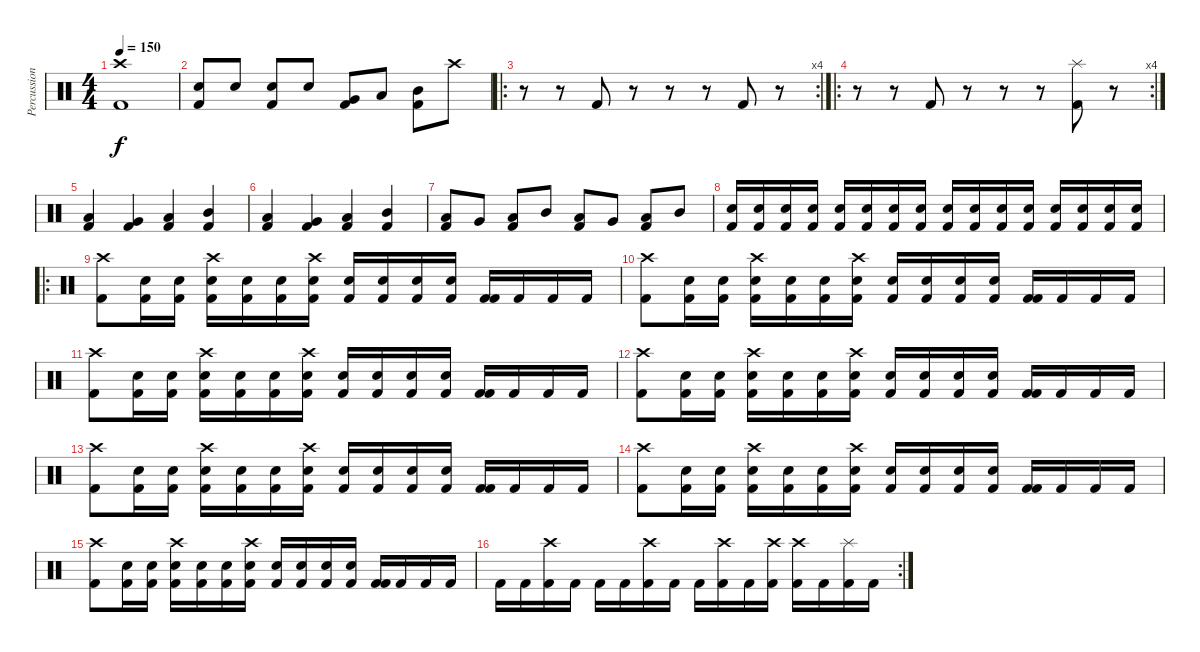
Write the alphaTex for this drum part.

\track ("Percussion" "Percussion") {instrument percussion}
\staff {score}
\articulation defaults
\ts (4 4)
\tempo 150
\clef neutral
\ks c
("Crash high (hit)" "Kick (hit) 2").1{dy f} |
("Kick (hit) 2" "Snare (hit) 2").8 "Snare (hit) 2".8 ("Kick (hit) 2" "Snare (hit) 2").8 "Snare (hit) 2".8 ("Kick (hit) 2" "Very Low Tom (hit)").8 "Low Tom (hit)".8 ("Kick (hit) 2" "Mid Tom (hit)").8 "Crash high (hit)".8 |
\ro
\rc 4
r.8 r.8 "Kick (hit) 2".8 r.8 r.8 r.8 "Kick (hit) 2".8 r.8 |
\ro
\rc 4
r.8 r.8 "Kick (hit) 2".8 r.8 r.8 r.8 ("Splash (hit)" "Kick (hit) 2").8 r.8 |
("Kick (hit) 2" "Low Floor Tom (hit)").4 ("Kick (hit) 2" "Very Low Tom (hit)").4 ("Kick (hit) 2" "Low Tom (hit)").4 ("Kick (hit) 2" "Mid Tom (hit)").4 |
("Kick (hit) 2" "Low Floor Tom (hit)").4 ("Kick (hit) 2" "Very Low Tom (hit)").4 ("Kick (hit) 2" "Low Tom (hit)").4 ("Kick (hit) 2" "Mid Tom (hit)").4 |
("Kick (hit) 2" "Low Floor Tom (hit)").8 "Very Low Tom (hit)".8 ("Kick (hit) 2" "Low Tom (hit)").8 "Mid Tom (hit)".8 ("Kick (hit) 2" "Low Floor Tom (hit)").8 "Very Low Tom (hit)".8 ("Kick (hit) 2" "Low Tom (hit)").8 "Mid Tom (hit)".8 |
("Kick (hit) 2" "Snare (hit) 2").16 ("Kick (hit) 2" "Snare (hit) 2").16 ("Kick (hit) 2" "Snare (hit) 2").16 ("Kick (hit) 2" "Snare (hit) 2").16 ("Kick (hit) 2" "Snare (hit) 2").16 ("Kick (hit) 2" "Snare (hit) 2").16 ("Kick (hit) 2" "Snare (hit) 2").16 ("Kick (hit) 2" "Snare (hit) 2").16 ("Kick (hit) 2" "Snare (hit) 2").16 ("Kick (hit) 2" "Snare (hit) 2").16 ("Kick (hit) 2" "Snare (hit) 2").16 ("Kick (hit) 2" "Snare (hit) 2").16 ("Kick (hit) 2" "Snare (hit) 2").16 ("Kick (hit) 2" "Snare (hit) 2").16 ("Kick (hit) 2" "Snare (hit) 2").16 ("Kick (hit) 2" "Snare (hit) 2").16 |
\ro
("Kick (hit) 2" "Crash high (hit)").8 ("Kick (hit) 2" "Snare (hit) 2").16 ("Snare (hit) 2" "Kick (hit) 2").16 ("Kick (hit) 2" "Snare (hit) 2" "Crash high (hit)").16 ("Snare (hit) 2" "Kick (hit) 2").16 ("Kick (hit) 2" "Snare (hit) 2").16 ("Snare (hit) 2" "Kick (hit) 2" "Crash high (hit)").16 ("Kick (hit) 2" "Snare (hit) 2").16 ("Kick (hit) 2" "Snare (hit) 2").16 ("Kick (hit) 2" "Snare (hit) 2").16 ("Kick (hit) 2" "Snare (hit) 2").16 ("Kick (hit) 2" "Kick (hit) 2").16 "Kick (hit) 2".16 "Kick (hit) 2".16 "Kick (hit) 2".16 |
("Kick (hit) 2" "Crash high (hit)").8 ("Kick (hit) 2" "Snare (hit) 2").16 ("Snare (hit) 2" "Kick (hit) 2").16 ("Kick (hit) 2" "Snare (hit) 2" "Crash high (hit)").16 ("Snare (hit) 2" "Kick (hit) 2").16 ("Kick (hit) 2" "Snare (hit) 2").16 ("Snare (hit) 2" "Kick (hit) 2" "Crash high (hit)").16 ("Kick (hit) 2" "Snare (hit) 2").16 ("Kick (hit) 2" "Snare (hit) 2").16 ("Kick (hit) 2" "Snare (hit) 2").16 ("Kick (hit) 2" "Snare (hit) 2").16 ("Kick (hit) 2" "Kick (hit) 2").16 "Kick (hit) 2".16 "Kick (hit) 2".16 "Kick (hit) 2".16 |
("Kick (hit) 2" "Crash high (hit)").8 ("Kick (hit) 2" "Snare (hit) 2").16 ("Snare (hit) 2" "Kick (hit) 2").16 ("Kick (hit) 2" "Snare (hit) 2" "Crash high (hit)").16 ("Snare (hit) 2" "Kick (hit) 2").16 ("Kick (hit) 2" "Snare (hit) 2").16 ("Snare (hit) 2" "Kick (hit) 2" "Crash high (hit)").16 ("Kick (hit) 2" "Snare (hit) 2").16 ("Kick (hit) 2" "Snare (hit) 2").16 ("Kick (hit) 2" "Snare (hit) 2").16 ("Kick (hit) 2" "Snare (hit) 2").16 ("Kick (hit) 2" "Kick (hit) 2").16 "Kick (hit) 2".16 "Kick (hit) 2".16 "Kick (hit) 2".16 |
("Kick (hit) 2" "Crash high (hit)").8 ("Kick (hit) 2" "Snare (hit) 2").16 ("Snare (hit) 2" "Kick (hit) 2").16 ("Kick (hit) 2" "Snare (hit) 2" "Crash high (hit)").16 ("Snare (hit) 2" "Kick (hit) 2").16 ("Kick (hit) 2" "Snare (hit) 2").16 ("Snare (hit) 2" "Kick (hit) 2" "Crash high (hit)").16 ("Kick (hit) 2" "Snare (hit) 2").16 ("Kick (hit) 2" "Snare (hit) 2").16 ("Kick (hit) 2" "Snare (hit) 2").16 ("Kick (hit) 2" "Snare (hit) 2").16 ("Kick (hit) 2" "Kick (hit) 2").16 "Kick (hit) 2".16 "Kick (hit) 2".16 "Kick (hit) 2".16 |
("Kick (hit) 2" "Crash high (hit)").8 ("Kick (hit) 2" "Snare (hit) 2").16 ("Snare (hit) 2" "Kick (hit) 2").16 ("Kick (hit) 2" "Snare (hit) 2" "Crash high (hit)").16 ("Snare (hit) 2" "Kick (hit) 2").16 ("Kick (hit) 2" "Snare (hit) 2").16 ("Snare (hit) 2" "Kick (hit) 2" "Crash high (hit)").16 ("Kick (hit) 2" "Snare (hit) 2").16 ("Kick (hit) 2" "Snare (hit) 2").16 ("Kick (hit) 2" "Snare (hit) 2").16 ("Kick (hit) 2" "Snare (hit) 2").16 ("Kick (hit) 2" "Kick (hit) 2").16 "Kick (hit) 2".16 "Kick (hit) 2".16 "Kick (hit) 2".16 |
("Kick (hit) 2" "Crash high (hit)").8 ("Kick (hit) 2" "Snare (hit) 2").16 ("Snare (hit) 2" "Kick (hit) 2").16 ("Kick (hit) 2" "Snare (hit) 2" "Crash high (hit)").16 ("Snare (hit) 2" "Kick (hit) 2").16 ("Kick (hit) 2" "Snare (hit) 2").16 ("Snare (hit) 2" "Kick (hit) 2" "Crash high (hit)").16 ("Kick (hit) 2" "Snare (hit) 2").16 ("Kick (hit) 2" "Snare (hit) 2").16 ("Kick (hit) 2" "Snare (hit) 2").16 ("Kick (hit) 2" "Snare (hit) 2").16 ("Kick (hit) 2" "Kick (hit) 2").16 "Kick (hit) 2".16 "Kick (hit) 2".16 "Kick (hit) 2".16 |
("Kick (hit) 2" "Crash high (hit)").8 ("Kick (hit) 2" "Snare (hit) 2").16 ("Snare (hit) 2" "Kick (hit) 2").16 ("Kick (hit) 2" "Snare (hit) 2" "Crash high (hit)").16 ("Snare (hit) 2" "Kick (hit) 2").16 ("Kick (hit) 2" "Snare (hit) 2").16 ("Snare (hit) 2" "Kick (hit) 2" "Crash high (hit)").16 ("Kick (hit) 2" "Snare (hit) 2").16 ("Kick (hit) 2" "Snare (hit) 2").16 ("Kick (hit) 2" "Snare (hit) 2").16 ("Kick (hit) 2" "Snare (hit) 2").16 ("Kick (hit) 2" "Kick (hit) 2").16 "Kick (hit) 2".16 "Kick (hit) 2".16 "Kick (hit) 2".16 |
\rc 2 "Kick (hit) 2".16 "Kick (hit) 2".16
("Crash high (hit)" "Kick (hit) 2").16 "Kick (hit) 2".16 "Kick (hit) 2".16 "Kick (hit) 2".16 ("Crash high (hit)" "Kick (hit) 2").16 "Kick (hit) 2".16 "Kick (hit) 2".16 ("Crash high (hit)" "Kick (hit) 2").16 "Kick (hit) 2".16 ("Crash high (hit)" "Kick (hit) 2").16 ("Crash high (hit)" "Kick (hit) 2").16 "Kick (hit) 2".16 ("Splash (hit)" "Kick (hit) 2").16 "Kick (hit) 2".16
